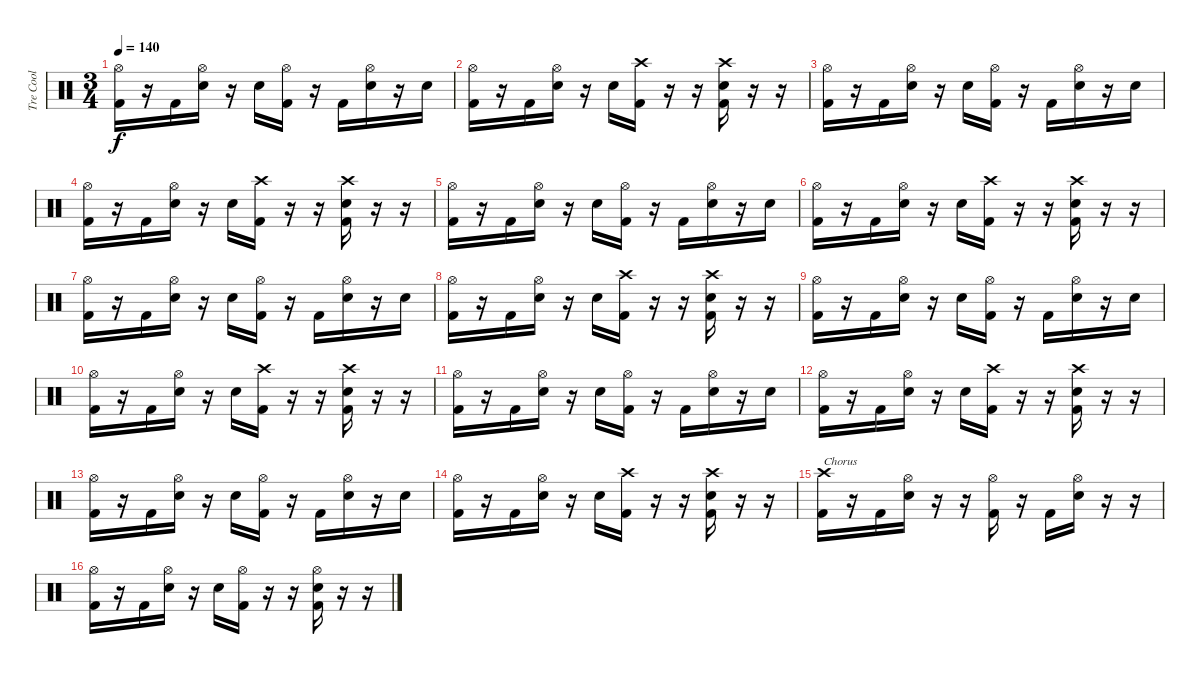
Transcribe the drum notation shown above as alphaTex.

\track ("Tre Cool" "Tre Cool") {instrument percussion}
\staff {score}
\articulation defaults
\ts (3 4)
\tempo 140
\clef neutral
\ks c
("Hi-Hat (open)" "Kick (hit) 2").16{dy f} r.16 "Kick (hit) 2".16 ("Hi-Hat (open)" "Snare (hit) 2").16 r.16 "Snare (hit) 2".16 ("Hi-Hat (open)" "Kick (hit) 2").16 r.16 "Kick (hit) 2".16 ("Hi-Hat (open)" "Snare (hit) 2").16 r.16 "Snare (hit) 2".16 |
("Hi-Hat (open)" "Kick (hit) 2").16 r.16 "Kick (hit) 2".16 ("Hi-Hat (open)" "Snare (hit) 2").16 r.16 "Snare (hit) 2".16 ("Crash high (hit)" "Kick (hit) 2").16 r.16 r.16 ("Crash high (hit)" "Snare (hit) 2" "Kick (hit) 2").16 r.16 r.16 |
("Hi-Hat (open)" "Kick (hit) 2").16 r.16 "Kick (hit) 2".16 ("Hi-Hat (open)" "Snare (hit) 2").16 r.16 "Snare (hit) 2".16 ("Hi-Hat (open)" "Kick (hit) 2").16 r.16 "Kick (hit) 2".16 ("Hi-Hat (open)" "Snare (hit) 2").16 r.16 "Snare (hit) 2".16 |
("Hi-Hat (open)" "Kick (hit) 2").16 r.16 "Kick (hit) 2".16 ("Hi-Hat (open)" "Snare (hit) 2").16 r.16 "Snare (hit) 2".16 ("Crash high (hit)" "Kick (hit) 2").16 r.16 r.16 ("Crash high (hit)" "Snare (hit) 2" "Kick (hit) 2").16 r.16 r.16 |
("Hi-Hat (open)" "Kick (hit) 2").16 r.16 "Kick (hit) 2".16 ("Hi-Hat (open)" "Snare (hit) 2").16 r.16 "Snare (hit) 2".16 ("Hi-Hat (open)" "Kick (hit) 2").16 r.16 "Kick (hit) 2".16 ("Hi-Hat (open)" "Snare (hit) 2").16 r.16 "Snare (hit) 2".16 |
("Hi-Hat (open)" "Kick (hit) 2").16 r.16 "Kick (hit) 2".16 ("Hi-Hat (open)" "Snare (hit) 2").16 r.16 "Snare (hit) 2".16 ("Crash high (hit)" "Kick (hit) 2").16 r.16 r.16 ("Crash high (hit)" "Snare (hit) 2" "Kick (hit) 2").16 r.16 r.16 |
("Hi-Hat (open)" "Kick (hit) 2").16 r.16 "Kick (hit) 2".16 ("Hi-Hat (open)" "Snare (hit) 2").16 r.16 "Snare (hit) 2".16 ("Hi-Hat (open)" "Kick (hit) 2").16 r.16 "Kick (hit) 2".16 ("Hi-Hat (open)" "Snare (hit) 2").16 r.16 "Snare (hit) 2".16 |
("Hi-Hat (open)" "Kick (hit) 2").16 r.16 "Kick (hit) 2".16 ("Hi-Hat (open)" "Snare (hit) 2").16 r.16 "Snare (hit) 2".16 ("Crash high (hit)" "Kick (hit) 2").16 r.16 r.16 ("Crash high (hit)" "Snare (hit) 2" "Kick (hit) 2").16 r.16 r.16 |
("Hi-Hat (open)" "Kick (hit) 2").16 r.16 "Kick (hit) 2".16 ("Hi-Hat (open)" "Snare (hit) 2").16 r.16 "Snare (hit) 2".16 ("Hi-Hat (open)" "Kick (hit) 2").16 r.16 "Kick (hit) 2".16 ("Hi-Hat (open)" "Snare (hit) 2").16 r.16 "Snare (hit) 2".16 |
("Hi-Hat (open)" "Kick (hit) 2").16 r.16 "Kick (hit) 2".16 ("Hi-Hat (open)" "Snare (hit) 2").16 r.16 "Snare (hit) 2".16 ("Crash high (hit)" "Kick (hit) 2").16 r.16 r.16 ("Crash high (hit)" "Snare (hit) 2" "Kick (hit) 2").16 r.16 r.16 |
("Hi-Hat (open)" "Kick (hit) 2").16 r.16 "Kick (hit) 2".16 ("Hi-Hat (open)" "Snare (hit) 2").16 r.16 "Snare (hit) 2".16 ("Hi-Hat (open)" "Kick (hit) 2").16 r.16 "Kick (hit) 2".16 ("Hi-Hat (open)" "Snare (hit) 2").16 r.16 "Snare (hit) 2".16 |
("Hi-Hat (open)" "Kick (hit) 2").16 r.16 "Kick (hit) 2".16 ("Hi-Hat (open)" "Snare (hit) 2").16 r.16 "Snare (hit) 2".16 ("Crash high (hit)" "Kick (hit) 2").16 r.16 r.16 ("Crash high (hit)" "Snare (hit) 2" "Kick (hit) 2").16 r.16 r.16 |
("Hi-Hat (open)" "Kick (hit) 2").16 r.16 "Kick (hit) 2".16 ("Hi-Hat (open)" "Snare (hit) 2").16 r.16 "Snare (hit) 2".16 ("Hi-Hat (open)" "Kick (hit) 2").16 r.16 "Kick (hit) 2".16 ("Hi-Hat (open)" "Snare (hit) 2").16 r.16 "Snare (hit) 2".16 |
("Hi-Hat (open)" "Kick (hit) 2").16 r.16 "Kick (hit) 2".16 ("Hi-Hat (open)" "Snare (hit) 2").16 r.16 "Snare (hit) 2".16 ("Crash high (hit)" "Kick (hit) 2").16 r.16 r.16 ("Crash high (hit)" "Snare (hit) 2" "Kick (hit) 2").16 r.16 r.16 |
("Crash high (hit)" "Kick (hit) 2").16{txt "Chorus"} r.16 "Kick (hit) 2".16 ("Hi-Hat (open)" "Snare (hit) 2").16 r.16 r.16 ("Hi-Hat (open)" "Kick (hit) 2").16 r.16 "Kick (hit) 2".16 ("Hi-Hat (open)" "Snare (hit) 2").16 r.16 r.16 |
("Hi-Hat (open)" "Kick (hit) 2").16 r.16 "Kick (hit) 2".16 ("Hi-Hat (open)" "Snare (hit) 2").16 r.16 "Snare (hit) 2".16 ("Hi-Hat (open)" "Kick (hit) 2").16 r.16 r.16 ("Hi-Hat (open)" "Snare (hit) 2" "Kick (hit) 2").16 r.16 r.16
